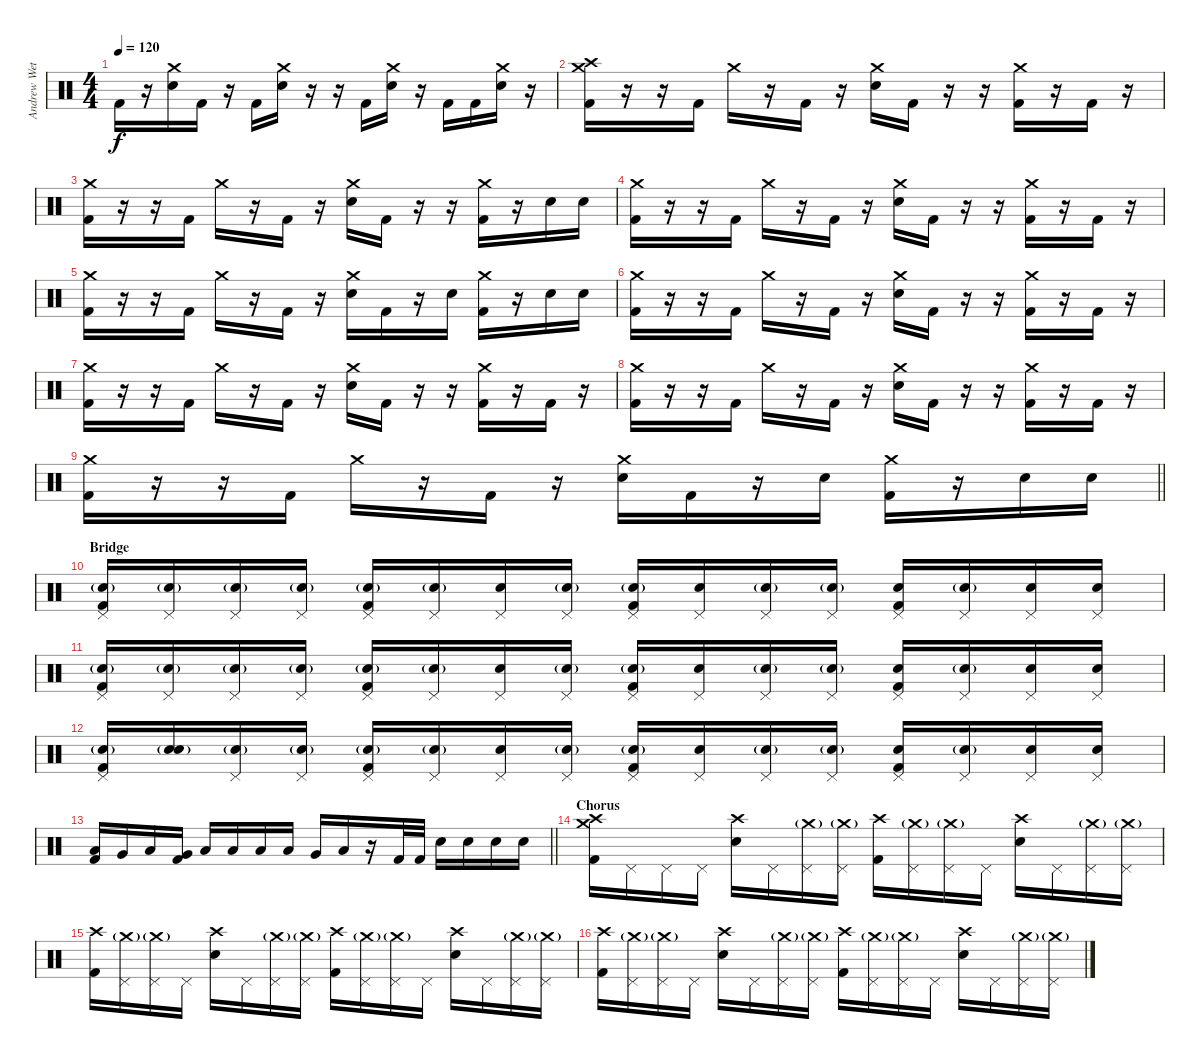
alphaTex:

\track ("Andrew Wetzel - Drums" "Andrew Wet") {instrument percussion}
\staff {score}
\articulation defaults
\ts (4 4)
\tempo 120
\clef neutral
\ks c "Kick (hit) 2".16{dy f}
r.16 ("Crash medium (hit)" "Electric Snare (hit)").16 "Kick (hit) 2".16 r.16 "Kick (hit) 2".16 ("Crash medium (hit)" "Electric Snare (hit)").16 r.16 r.16 "Kick (hit) 2".16 ("Crash medium (hit)" "Electric Snare (hit)").16 r.16 "Kick (hit) 2".16 "Kick (hit) 2".16 ("Crash medium (hit)" "Electric Snare (hit)").16 r.16 |
("Crash high (hit)" "Crash medium (hit)" "Kick (hit) 2").16 r.16 r.16 "Kick (hit) 2".16 "Crash medium (hit)".16 r.16 "Kick (hit) 2".16 r.16 ("Crash medium (hit)" "Electric Snare (hit)").16 "Kick (hit) 2".16 r.16 r.16 ("Crash medium (hit)" "Kick (hit) 2").16 r.16 "Kick (hit) 2".16 r.16 |
("Crash medium (hit)" "Kick (hit) 2").16 r.16 r.16 "Kick (hit) 2".16 "Crash medium (hit)".16 r.16 "Kick (hit) 2".16 r.16 ("Crash medium (hit)" "Electric Snare (hit)").16 "Kick (hit) 2".16 r.16 r.16 ("Crash medium (hit)" "Kick (hit) 2").16 r.16 "Electric Snare (hit)".16 "Electric Snare (hit)".16 |
("Crash medium (hit)" "Kick (hit) 2").16 r.16 r.16 "Kick (hit) 2".16 "Crash medium (hit)".16 r.16 "Kick (hit) 2".16 r.16 ("Crash medium (hit)" "Electric Snare (hit)").16 "Kick (hit) 2".16 r.16 r.16 ("Crash medium (hit)" "Kick (hit) 2").16 r.16 "Kick (hit) 2".16 r.16 |
("Crash medium (hit)" "Kick (hit) 2").16 r.16 r.16 "Kick (hit) 2".16 "Crash medium (hit)".16 r.16 "Kick (hit) 2".16 r.16 ("Crash medium (hit)" "Electric Snare (hit)").16 "Kick (hit) 2".16 r.16 "Electric Snare (hit)".16 ("Crash medium (hit)" "Kick (hit) 2").16 r.16 "Electric Snare (hit)".16 "Electric Snare (hit)".16 |
("Crash medium (hit)" "Kick (hit) 2").16 r.16 r.16 "Kick (hit) 2".16 "Crash medium (hit)".16 r.16 "Kick (hit) 2".16 r.16 ("Crash medium (hit)" "Electric Snare (hit)").16 "Kick (hit) 2".16 r.16 r.16 ("Crash medium (hit)" "Kick (hit) 2").16 r.16 "Kick (hit) 2".16 r.16 |
("Crash medium (hit)" "Kick (hit) 2").16 r.16 r.16 "Kick (hit) 2".16 "Crash medium (hit)".16 r.16 "Kick (hit) 2".16 r.16 ("Crash medium (hit)" "Electric Snare (hit)").16 "Kick (hit) 2".16 r.16 r.16 ("Crash medium (hit)" "Kick (hit) 2").16 r.16 "Kick (hit) 2".16 r.16 |
("Crash medium (hit)" "Kick (hit) 2").16 r.16 r.16 "Kick (hit) 2".16 "Crash medium (hit)".16 r.16 "Kick (hit) 2".16 r.16 ("Crash medium (hit)" "Electric Snare (hit)").16 "Kick (hit) 2".16 r.16 r.16 ("Crash medium (hit)" "Kick (hit) 2").16 r.16 "Kick (hit) 2".16 r.16 |
\barLineRight lightlight
("Crash medium (hit)" "Kick (hit) 2").16 r.16 r.16 "Kick (hit) 2".16 "Crash medium (hit)".16 r.16 "Kick (hit) 2".16 r.16 ("Crash medium (hit)" "Electric Snare (hit)").16 "Kick (hit) 2".16 r.16 "Electric Snare (hit)".16 ("Crash medium (hit)" "Kick (hit) 2").16 r.16 "Electric Snare (hit)".16 "Electric Snare (hit)".16 |
\section ("" "Bridge")
("Pedal Hi-Hat (hit)" "Electric Snare (hit)"{g} "Kick (hit) 2").16 ("Pedal Hi-Hat (hit)" "Electric Snare (hit)"{g}).16 ("Pedal Hi-Hat (hit)" "Electric Snare (hit)"{g}).16 ("Pedal Hi-Hat (hit)" "Electric Snare (hit)"{g}).16 ("Pedal Hi-Hat (hit)" "Electric Snare (hit)"{g} "Kick (hit) 2").16 ("Pedal Hi-Hat (hit)" "Electric Snare (hit)"{g}).16 ("Pedal Hi-Hat (hit)" "Electric Snare (hit)").16 ("Pedal Hi-Hat (hit)" "Electric Snare (hit)"{g}).16 ("Pedal Hi-Hat (hit)" "Electric Snare (hit)"{g} "Kick (hit) 2").16 ("Pedal Hi-Hat (hit)" "Electric Snare (hit)").16 ("Pedal Hi-Hat (hit)" "Electric Snare (hit)"{g}).16 ("Pedal Hi-Hat (hit)" "Electric Snare (hit)"{g}).16 ("Pedal Hi-Hat (hit)" "Electric Snare (hit)" "Kick (hit) 2").16 ("Pedal Hi-Hat (hit)" "Electric Snare (hit)"{g}).16 ("Pedal Hi-Hat (hit)" "Electric Snare (hit)").16 ("Pedal Hi-Hat (hit)" "Electric Snare (hit)").16 |
("Pedal Hi-Hat (hit)" "Electric Snare (hit)"{g} "Kick (hit) 2").16 ("Pedal Hi-Hat (hit)" "Electric Snare (hit)"{g}).16 ("Pedal Hi-Hat (hit)" "Electric Snare (hit)"{g}).16 ("Pedal Hi-Hat (hit)" "Electric Snare (hit)"{g}).16 ("Pedal Hi-Hat (hit)" "Electric Snare (hit)"{g} "Kick (hit) 2").16 ("Pedal Hi-Hat (hit)" "Electric Snare (hit)"{g}).16 ("Pedal Hi-Hat (hit)" "Electric Snare (hit)").16 ("Pedal Hi-Hat (hit)" "Electric Snare (hit)"{g}).16 ("Pedal Hi-Hat (hit)" "Electric Snare (hit)"{g} "Kick (hit) 2").16 ("Pedal Hi-Hat (hit)" "Electric Snare (hit)").16 ("Pedal Hi-Hat (hit)" "Electric Snare (hit)"{g}).16 ("Pedal Hi-Hat (hit)" "Electric Snare (hit)"{g}).16 ("Pedal Hi-Hat (hit)" "Electric Snare (hit)" "Kick (hit) 2").16 ("Pedal Hi-Hat (hit)" "Electric Snare (hit)"{g}).16 ("Pedal Hi-Hat (hit)" "Electric Snare (hit)").16 ("Pedal Hi-Hat (hit)" "Electric Snare (hit)").16 |
("Pedal Hi-Hat (hit)" "Electric Snare (hit)"{g} "Kick (hit) 2").16 ("Snare (hit)" "Electric Snare (hit)"{g}).16 ("Pedal Hi-Hat (hit)" "Electric Snare (hit)"{g}).16 ("Pedal Hi-Hat (hit)" "Electric Snare (hit)"{g}).16 ("Pedal Hi-Hat (hit)" "Electric Snare (hit)"{g} "Kick (hit) 2").16 ("Pedal Hi-Hat (hit)" "Electric Snare (hit)"{g}).16 ("Pedal Hi-Hat (hit)" "Electric Snare (hit)").16 ("Pedal Hi-Hat (hit)" "Electric Snare (hit)"{g}).16 ("Pedal Hi-Hat (hit)" "Electric Snare (hit)"{g} "Kick (hit) 2").16 ("Pedal Hi-Hat (hit)" "Electric Snare (hit)").16 ("Pedal Hi-Hat (hit)" "Electric Snare (hit)"{g}).16 ("Pedal Hi-Hat (hit)" "Electric Snare (hit)"{g}).16 ("Pedal Hi-Hat (hit)" "Electric Snare (hit)" "Kick (hit) 2").16 ("Pedal Hi-Hat (hit)" "Electric Snare (hit)"{g}).16 ("Pedal Hi-Hat (hit)" "Electric Snare (hit)").16 ("Pedal Hi-Hat (hit)" "Electric Snare (hit)").16 |
\barLineRight lightlight
("Low Tom (hit)" "Kick (hit) 2").16 "Very Low Tom (hit)".16 "Low Floor Tom (hit)".16 ("Very Low Tom (hit)" "Kick (hit) 2").16 "Low Floor Tom (hit)".16 "Low Floor Tom (hit)".16 "Low Tom (hit)".16 "Low Floor Tom (hit)".16 "Very Low Tom (hit)".16 "Low Tom (hit)".16 r.16 "Kick (hit) 2".32 "Kick (hit) 2".32 "Electric Snare (hit)".16 "Electric Snare (hit)".16 "Electric Snare (hit)".16 "Electric Snare (hit)".16 |
\section ("" "Chorus")
("Crash high (hit)" "Crash medium (hit)" "Kick (hit) 2").16 "Pedal Hi-Hat (hit)".16 "Pedal Hi-Hat (hit)".16 "Pedal Hi-Hat (hit)".16 ("Crash high (hit)" "Electric Snare (hit)").16 "Pedal Hi-Hat (hit)".16 ("Pedal Hi-Hat (hit)" "Crash medium (hit)"{g}).16 ("Pedal Hi-Hat (hit)" "Crash medium (hit)"{g}).16 ("Crash high (hit)" "Kick (hit) 2").16 ("Pedal Hi-Hat (hit)" "Crash medium (hit)"{g}).16 ("Pedal Hi-Hat (hit)" "Crash medium (hit)"{g}).16 "Pedal Hi-Hat (hit)".16 ("Crash high (hit)" "Electric Snare (hit)").16 "Pedal Hi-Hat (hit)".16 ("Pedal Hi-Hat (hit)" "Crash medium (hit)"{g}).16 ("Pedal Hi-Hat (hit)" "Crash medium (hit)"{g}).16 |
("Crash high (hit)" "Kick (hit) 2").16 ("Pedal Hi-Hat (hit)" "Crash medium (hit)"{g}).16 ("Pedal Hi-Hat (hit)" "Crash medium (hit)"{g}).16 "Pedal Hi-Hat (hit)".16 ("Crash high (hit)" "Electric Snare (hit)").16 "Pedal Hi-Hat (hit)".16 ("Pedal Hi-Hat (hit)" "Crash medium (hit)"{g}).16 ("Pedal Hi-Hat (hit)" "Crash medium (hit)"{g}).16 ("Crash high (hit)" "Kick (hit) 2").16 ("Pedal Hi-Hat (hit)" "Crash medium (hit)"{g}).16 ("Pedal Hi-Hat (hit)" "Crash medium (hit)"{g}).16 "Pedal Hi-Hat (hit)".16 ("Crash high (hit)" "Electric Snare (hit)").16 "Pedal Hi-Hat (hit)".16 ("Pedal Hi-Hat (hit)" "Crash medium (hit)"{g}).16 ("Pedal Hi-Hat (hit)" "Crash medium (hit)"{g}).16 |
("Crash high (hit)" "Kick (hit) 2").16 ("Pedal Hi-Hat (hit)" "Crash medium (hit)"{g}).16 ("Pedal Hi-Hat (hit)" "Crash medium (hit)"{g}).16 "Pedal Hi-Hat (hit)".16 ("Crash high (hit)" "Electric Snare (hit)").16 "Pedal Hi-Hat (hit)".16 ("Pedal Hi-Hat (hit)" "Crash medium (hit)"{g}).16 ("Pedal Hi-Hat (hit)" "Crash medium (hit)"{g}).16 ("Crash high (hit)" "Kick (hit) 2").16 ("Pedal Hi-Hat (hit)" "Crash medium (hit)"{g}).16 ("Pedal Hi-Hat (hit)" "Crash medium (hit)"{g}).16 "Pedal Hi-Hat (hit)".16 ("Crash high (hit)" "Electric Snare (hit)").16 "Pedal Hi-Hat (hit)".16 ("Pedal Hi-Hat (hit)" "Crash medium (hit)"{g}).16 ("Pedal Hi-Hat (hit)" "Crash medium (hit)"{g}).16
